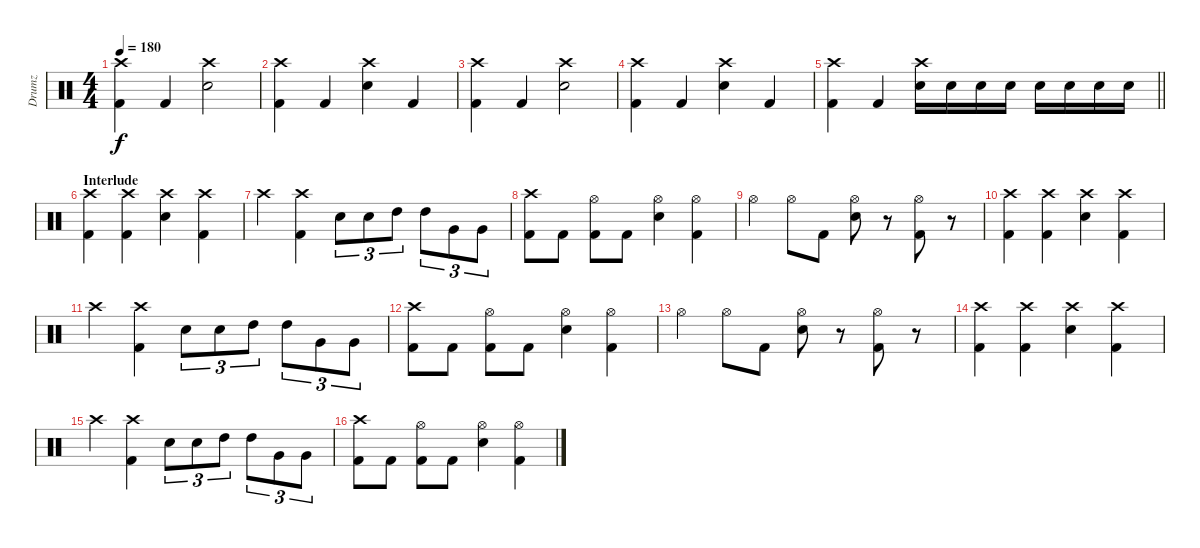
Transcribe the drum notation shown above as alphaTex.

\track ("Drumz" "Drumz") {instrument percussion}
\staff {score}
\articulation defaults
\ts (4 4)
\tempo 180
\clef neutral
\ks c
("Crash high (hit)" "Kick (hit) 2").4{dy f} "Kick (hit) 2".4 ("Crash high (hit)" "Snare (hit) 2").2 |
("Kick (hit) 2" "Crash high (hit)").4 "Kick (hit) 2".4 ("Snare (hit) 2" "Crash high (hit)").4 "Kick (hit) 2".4 |
("Crash high (hit)" "Kick (hit) 2").4 "Kick (hit) 2".4 ("Crash high (hit)" "Snare (hit) 2").2 |
("Kick (hit) 2" "Crash high (hit)").4 "Kick (hit) 2".4 ("Snare (hit) 2" "Crash high (hit)").4 "Kick (hit) 2".4 |
\barLineRight lightlight
("Crash high (hit)" "Kick (hit) 2").4 "Kick (hit) 2".4 ("Crash high (hit)" "Electric Snare (hit)").16 "Electric Snare (hit)".16 "Electric Snare (hit)".16 "Electric Snare (hit)".16 "Electric Snare (hit)".16 "Electric Snare (hit)".16 "Electric Snare (hit)".16 "Electric Snare (hit)".16 |
\section ("" "Interlude")
("Kick (hit) 2" "Crash high (hit)").4 ("Kick (hit) 2" "Crash high (hit)").4 ("Crash high (hit)" "Snare (hit) 2").4 ("Kick (hit) 2" "Crash high (hit)").4 |
"Crash high (hit)".4 ("Kick (hit) 2" "Crash high (hit)").4 "Snare (hit) 2".8{tu (3 2)} "Snare (hit) 2".8{tu (3 2)} "High Tom (hit)".8{tu (3 2)} "High Tom (hit)".8{tu (3 2)} "Very Low Tom (hit)".8{tu (3 2)} "Very Low Tom (hit)".8{tu (3 2)} |
("Kick (hit) 2" "Crash high (hit)").8 "Kick (hit) 2".8 ("Kick (hit) 2" "Hi-Hat (open)").8 "Kick (hit) 2".8 ("Hi-Hat (open)" "Snare (hit) 2").4 ("Kick (hit) 2" "Hi-Hat (open)").4 |
"Hi-Hat (open)".4 "Hi-Hat (open)".8 "Kick (hit) 2".8 ("Hi-Hat (open)" "Snare (hit) 2").8 r.8 ("Kick (hit) 2" "Hi-Hat (open)").8 r.8 |
("Kick (hit) 2" "Crash high (hit)").4 ("Kick (hit) 2" "Crash high (hit)").4 ("Crash high (hit)" "Snare (hit) 2").4 ("Kick (hit) 2" "Crash high (hit)").4 |
"Crash high (hit)".4 ("Kick (hit) 2" "Crash high (hit)").4 "Snare (hit) 2".8{tu (3 2)} "Snare (hit) 2".8{tu (3 2)} "High Tom (hit)".8{tu (3 2)} "High Tom (hit)".8{tu (3 2)} "Very Low Tom (hit)".8{tu (3 2)} "Very Low Tom (hit)".8{tu (3 2)} |
("Kick (hit) 2" "Crash high (hit)").8 "Kick (hit) 2".8 ("Kick (hit) 2" "Hi-Hat (open)").8 "Kick (hit) 2".8 ("Hi-Hat (open)" "Snare (hit) 2").4 ("Kick (hit) 2" "Hi-Hat (open)").4 |
"Hi-Hat (open)".4 "Hi-Hat (open)".8 "Kick (hit) 2".8 ("Hi-Hat (open)" "Snare (hit) 2").8 r.8 ("Kick (hit) 2" "Hi-Hat (open)").8 r.8 |
("Kick (hit) 2" "Crash high (hit)").4 ("Kick (hit) 2" "Crash high (hit)").4 ("Crash high (hit)" "Snare (hit) 2").4 ("Kick (hit) 2" "Crash high (hit)").4 |
"Crash high (hit)".4 ("Kick (hit) 2" "Crash high (hit)").4 "Snare (hit) 2".8{tu (3 2)} "Snare (hit) 2".8{tu (3 2)} "High Tom (hit)".8{tu (3 2)} "High Tom (hit)".8{tu (3 2)} "Very Low Tom (hit)".8{tu (3 2)} "Very Low Tom (hit)".8{tu (3 2)} |
("Kick (hit) 2" "Crash high (hit)").8 "Kick (hit) 2".8 ("Kick (hit) 2" "Hi-Hat (open)").8 "Kick (hit) 2".8 ("Hi-Hat (open)" "Snare (hit) 2").4 ("Kick (hit) 2" "Hi-Hat (open)").4
